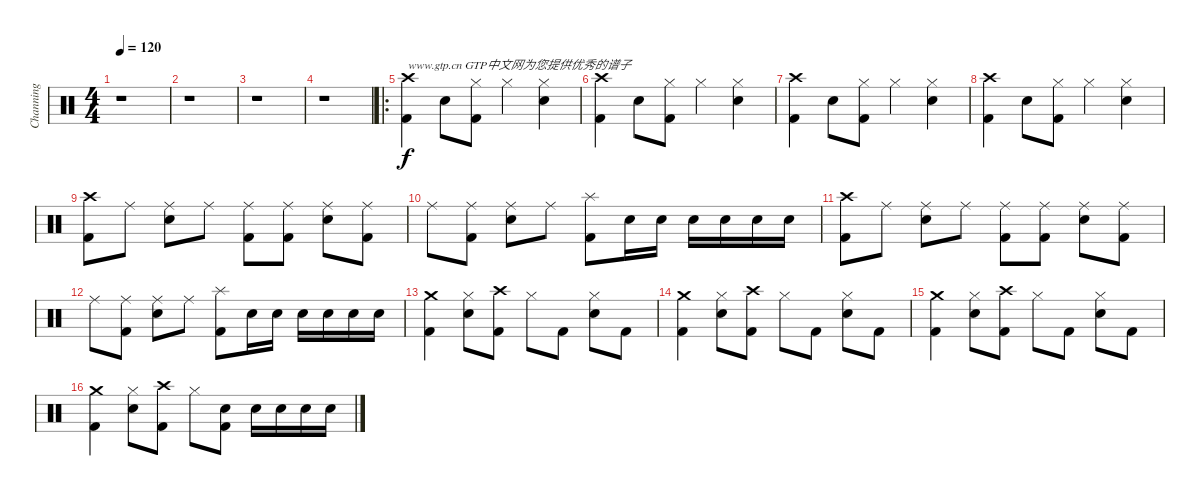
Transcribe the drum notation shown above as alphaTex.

\track ("Channing" "Channing") {instrument percussion}
\staff {score}
\articulation defaults
\ts (4 4)
\tempo 120
\clef neutral
\ks c
r.1{dy f} |
r.1 |
r.1 |
r.1 |
\ro
("Crash high (hit)" "Kick (hit) 2").4{txt "www.gtp.cn GTP中文网为您提供优秀的谱子"} "Snare (hit) 2".8 ("Hi-Hat (closed)" "Kick (hit) 2").8 "Hi-Hat (closed)".4 ("Hi-Hat (closed)" "Snare (hit) 2").4 |
("Crash high (hit)" "Kick (hit) 2").4 "Snare (hit) 2".8 ("Hi-Hat (closed)" "Kick (hit) 2").8 "Hi-Hat (closed)".4 ("Hi-Hat (closed)" "Snare (hit) 2").4 |
("Crash high (hit)" "Kick (hit) 2").4 "Snare (hit) 2".8 ("Hi-Hat (closed)" "Kick (hit) 2").8 "Hi-Hat (closed)".4 ("Hi-Hat (closed)" "Snare (hit) 2").4 |
("Crash high (hit)" "Kick (hit) 2").4 "Snare (hit) 2".8 ("Hi-Hat (closed)" "Kick (hit) 2").8 "Hi-Hat (closed)".4 ("Hi-Hat (closed)" "Snare (hit) 2").4 |
("Crash high (hit)" "Kick (hit) 2").8 "Ride (middle)".8 ("Ride (middle)" "Snare (hit) 2").8 "Ride (middle)".8 ("Ride (middle)" "Kick (hit) 2").8 ("Ride (middle)" "Kick (hit) 2").8 ("Ride (middle)" "Snare (hit) 2").8 ("Ride (middle)" "Kick (hit) 2").8 |
"Ride (middle)".8 ("Ride (middle)" "Kick (hit) 2").8 ("Ride (middle)" "Snare (hit) 2").8 "Ride (middle)".8 ("Splash (hit)" "Kick (hit) 2").8 "Snare (hit) 2".16 "Snare (hit) 2".16 "Snare (hit) 2".16 "Snare (hit) 2".16 "Snare (hit) 2".16 "Snare (hit) 2".16 |
("Crash high (hit)" "Kick (hit) 2").8 "Ride (middle)".8 ("Ride (middle)" "Snare (hit) 2").8 "Ride (middle)".8 ("Ride (middle)" "Kick (hit) 2").8 ("Ride (middle)" "Kick (hit) 2").8 ("Ride (middle)" "Snare (hit) 2").8 ("Ride (middle)" "Kick (hit) 2").8 |
"Ride (middle)".8 ("Ride (middle)" "Kick (hit) 2").8 ("Ride (middle)" "Snare (hit) 2").8 "Ride (middle)".8 ("Splash (hit)" "Kick (hit) 2").8 "Snare (hit) 2".16 "Snare (hit) 2".16 "Snare (hit) 2".16 "Snare (hit) 2".16 "Snare (hit) 2".16 "Snare (hit) 2".16 |
("Crash medium (hit)" "Kick (hit) 2").4 ("Hi-Hat (closed)" "Snare (hit) 2").8 ("Crash high (hit)" "Kick (hit) 2").8 "Hi-Hat (closed)".8 "Kick (hit) 2".8 ("Hi-Hat (closed)" "Snare (hit) 2").8 "Kick (hit) 2".8 |
("Crash medium (hit)" "Kick (hit) 2").4 ("Hi-Hat (closed)" "Snare (hit) 2").8 ("Crash high (hit)" "Kick (hit) 2").8 "Hi-Hat (closed)".8 "Kick (hit) 2".8 ("Hi-Hat (closed)" "Snare (hit) 2").8 "Kick (hit) 2".8 |
("Crash medium (hit)" "Kick (hit) 2").4 ("Hi-Hat (closed)" "Snare (hit) 2").8 ("Crash high (hit)" "Kick (hit) 2").8 "Hi-Hat (closed)".8 "Kick (hit) 2".8 ("Hi-Hat (closed)" "Snare (hit) 2").8 "Kick (hit) 2".8 |
("Crash medium (hit)" "Kick (hit) 2").4 ("Hi-Hat (closed)" "Snare (hit) 2").8 ("Crash high (hit)" "Kick (hit) 2").8 "Hi-Hat (closed)".8 ("Snare (hit) 2" "Kick (hit) 2").8 "Snare (hit) 2".16 "Snare (hit) 2".16 "Snare (hit) 2".16 "Snare (hit) 2".16
